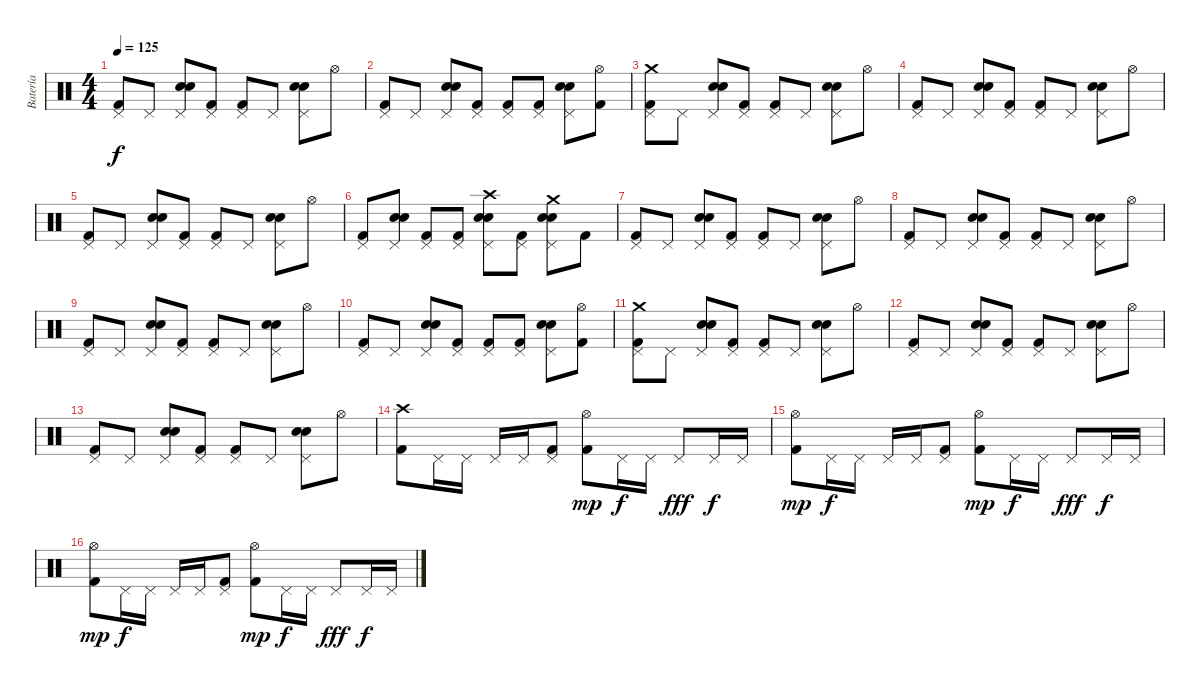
\track ("Batería" "Batería") {instrument percussion}
\staff {score}
\articulation defaults
\ts (4 4)
\tempo 125
\clef neutral
\ks c
("Kick (hit) 2" "Pedal Hi-Hat (hit)").8{dy f} "Pedal Hi-Hat (hit)".8 ("Electric Snare (hit)" "Pedal Hi-Hat (hit)" "Snare (hit) 2").8 ("Kick (hit) 2" "Pedal Hi-Hat (hit)").8 ("Kick (hit) 2" "Pedal Hi-Hat (hit)").8 "Pedal Hi-Hat (hit)".8 ("Electric Snare (hit)" "Pedal Hi-Hat (hit)" "Snare (hit) 2").8 "Hi-Hat (open)".8 |
("Kick (hit) 2" "Pedal Hi-Hat (hit)").8 "Pedal Hi-Hat (hit)".8 ("Electric Snare (hit)" "Pedal Hi-Hat (hit)" "Snare (hit) 2").8 ("Kick (hit) 2" "Pedal Hi-Hat (hit)").8 ("Kick (hit) 2" "Pedal Hi-Hat (hit)").8 ("Kick (hit) 2" "Pedal Hi-Hat (hit)").8 ("Electric Snare (hit)" "Pedal Hi-Hat (hit)" "Snare (hit) 2").8 ("Kick (hit) 2" "Hi-Hat (open)").8 |
("Kick (hit) 2" "Pedal Hi-Hat (hit)" "Crash medium (hit)").8 "Pedal Hi-Hat (hit)".8 ("Electric Snare (hit)" "Pedal Hi-Hat (hit)" "Snare (hit) 2").8 ("Kick (hit) 2" "Pedal Hi-Hat (hit)").8 ("Kick (hit) 2" "Pedal Hi-Hat (hit)").8 "Pedal Hi-Hat (hit)".8 ("Electric Snare (hit)" "Pedal Hi-Hat (hit)" "Snare (hit) 2").8 "Hi-Hat (open)".8 |
("Kick (hit) 2" "Pedal Hi-Hat (hit)").8 "Pedal Hi-Hat (hit)".8 ("Electric Snare (hit)" "Pedal Hi-Hat (hit)" "Snare (hit) 2").8 ("Kick (hit) 2" "Pedal Hi-Hat (hit)").8 ("Kick (hit) 2" "Pedal Hi-Hat (hit)").8 "Pedal Hi-Hat (hit)".8 ("Electric Snare (hit)" "Pedal Hi-Hat (hit)" "Snare (hit) 2").8 "Hi-Hat (open)".8 |
("Kick (hit) 2" "Pedal Hi-Hat (hit)").8 "Pedal Hi-Hat (hit)".8 ("Electric Snare (hit)" "Pedal Hi-Hat (hit)" "Snare (hit) 2").8 ("Kick (hit) 2" "Pedal Hi-Hat (hit)").8 ("Kick (hit) 2" "Pedal Hi-Hat (hit)").8 "Pedal Hi-Hat (hit)".8 ("Electric Snare (hit)" "Pedal Hi-Hat (hit)" "Snare (hit) 2").8 "Hi-Hat (open)".8 |
("Kick (hit) 2" "Pedal Hi-Hat (hit)").8 ("Electric Snare (hit)" "Pedal Hi-Hat (hit)" "Snare (hit) 2").8 ("Kick (hit) 2" "Pedal Hi-Hat (hit)").8 ("Kick (hit) 2" "Pedal Hi-Hat (hit)").8 ("Electric Snare (hit)" "Pedal Hi-Hat (hit)" "Snare (hit) 2" "Crash high (hit)").8 ("Kick (hit) 2" "Pedal Hi-Hat (hit)").8 ("Electric Snare (hit)" "Pedal Hi-Hat (hit)" "Snare (hit) 2" "Crash medium (hit)").8 "Kick (hit) 2".8 |
("Kick (hit) 2" "Pedal Hi-Hat (hit)").8 "Pedal Hi-Hat (hit)".8 ("Electric Snare (hit)" "Pedal Hi-Hat (hit)" "Snare (hit) 2").8 ("Kick (hit) 2" "Pedal Hi-Hat (hit)").8 ("Kick (hit) 2" "Pedal Hi-Hat (hit)").8 "Pedal Hi-Hat (hit)".8 ("Electric Snare (hit)" "Pedal Hi-Hat (hit)" "Snare (hit) 2").8 "Hi-Hat (open)".8 |
("Kick (hit) 2" "Pedal Hi-Hat (hit)").8 "Pedal Hi-Hat (hit)".8 ("Electric Snare (hit)" "Pedal Hi-Hat (hit)" "Snare (hit) 2").8 ("Kick (hit) 2" "Pedal Hi-Hat (hit)").8 ("Kick (hit) 2" "Pedal Hi-Hat (hit)").8 "Pedal Hi-Hat (hit)".8 ("Electric Snare (hit)" "Pedal Hi-Hat (hit)" "Snare (hit) 2").8 "Hi-Hat (open)".8 |
("Kick (hit) 2" "Pedal Hi-Hat (hit)").8 "Pedal Hi-Hat (hit)".8 ("Electric Snare (hit)" "Pedal Hi-Hat (hit)" "Snare (hit) 2").8 ("Kick (hit) 2" "Pedal Hi-Hat (hit)").8 ("Kick (hit) 2" "Pedal Hi-Hat (hit)").8 "Pedal Hi-Hat (hit)".8 ("Electric Snare (hit)" "Pedal Hi-Hat (hit)" "Snare (hit) 2").8 "Hi-Hat (open)".8 |
("Kick (hit) 2" "Pedal Hi-Hat (hit)").8 "Pedal Hi-Hat (hit)".8 ("Electric Snare (hit)" "Pedal Hi-Hat (hit)" "Snare (hit) 2").8 ("Kick (hit) 2" "Pedal Hi-Hat (hit)").8 ("Kick (hit) 2" "Pedal Hi-Hat (hit)").8 ("Kick (hit) 2" "Pedal Hi-Hat (hit)").8 ("Electric Snare (hit)" "Pedal Hi-Hat (hit)" "Snare (hit) 2").8 ("Kick (hit) 2" "Hi-Hat (open)").8 |
("Kick (hit) 2" "Pedal Hi-Hat (hit)" "Crash medium (hit)").8 "Pedal Hi-Hat (hit)".8 ("Electric Snare (hit)" "Pedal Hi-Hat (hit)" "Snare (hit) 2").8 ("Kick (hit) 2" "Pedal Hi-Hat (hit)").8 ("Kick (hit) 2" "Pedal Hi-Hat (hit)").8 "Pedal Hi-Hat (hit)".8 ("Electric Snare (hit)" "Pedal Hi-Hat (hit)" "Snare (hit) 2").8 "Hi-Hat (open)".8 |
("Kick (hit) 2" "Pedal Hi-Hat (hit)").8 "Pedal Hi-Hat (hit)".8 ("Electric Snare (hit)" "Pedal Hi-Hat (hit)" "Snare (hit) 2").8 ("Kick (hit) 2" "Pedal Hi-Hat (hit)").8 ("Kick (hit) 2" "Pedal Hi-Hat (hit)").8 "Pedal Hi-Hat (hit)".8 ("Electric Snare (hit)" "Pedal Hi-Hat (hit)" "Snare (hit) 2").8 "Hi-Hat (open)".8 |
("Kick (hit) 2" "Pedal Hi-Hat (hit)").8 "Pedal Hi-Hat (hit)".8 ("Electric Snare (hit)" "Pedal Hi-Hat (hit)" "Snare (hit) 2").8 ("Kick (hit) 2" "Pedal Hi-Hat (hit)").8 ("Kick (hit) 2" "Pedal Hi-Hat (hit)").8 "Pedal Hi-Hat (hit)".8 ("Electric Snare (hit)" "Pedal Hi-Hat (hit)" "Snare (hit) 2").8 "Hi-Hat (open)".8 |
("Kick (hit) 2" "Crash high (hit)").8 "Pedal Hi-Hat (hit)".16 "Pedal Hi-Hat (hit)".16 "Pedal Hi-Hat (hit)".16 "Pedal Hi-Hat (hit)".16 ("Kick (hit) 2" "Pedal Hi-Hat (hit)").8 ("Kick (hit) 2" "Hi-Hat (open)").8{dy mp} "Pedal Hi-Hat (hit)".16{dy f} "Pedal Hi-Hat (hit)".16 "Pedal Hi-Hat (hit)".8{dy fff} "Pedal Hi-Hat (hit)".16{dy f} "Pedal Hi-Hat (hit)".16 |
("Kick (hit) 2" "Hi-Hat (open)").8{dy mp} "Pedal Hi-Hat (hit)".16{dy f} "Pedal Hi-Hat (hit)".16 "Pedal Hi-Hat (hit)".16 "Pedal Hi-Hat (hit)".16 ("Kick (hit) 2" "Pedal Hi-Hat (hit)").8 ("Kick (hit) 2" "Hi-Hat (open)").8{dy mp} "Pedal Hi-Hat (hit)".16{dy f} "Pedal Hi-Hat (hit)".16 "Pedal Hi-Hat (hit)".8{dy fff} "Pedal Hi-Hat (hit)".16{dy f} "Pedal Hi-Hat (hit)".16 |
("Kick (hit) 2" "Hi-Hat (open)").8{dy mp} "Pedal Hi-Hat (hit)".16{dy f} "Pedal Hi-Hat (hit)".16 "Pedal Hi-Hat (hit)".16 "Pedal Hi-Hat (hit)".16 ("Kick (hit) 2" "Pedal Hi-Hat (hit)").8 ("Kick (hit) 2" "Hi-Hat (open)").8{dy mp} "Pedal Hi-Hat (hit)".16{dy f} "Pedal Hi-Hat (hit)".16 "Pedal Hi-Hat (hit)".8{dy fff} "Pedal Hi-Hat (hit)".16{dy f} "Pedal Hi-Hat (hit)".16
